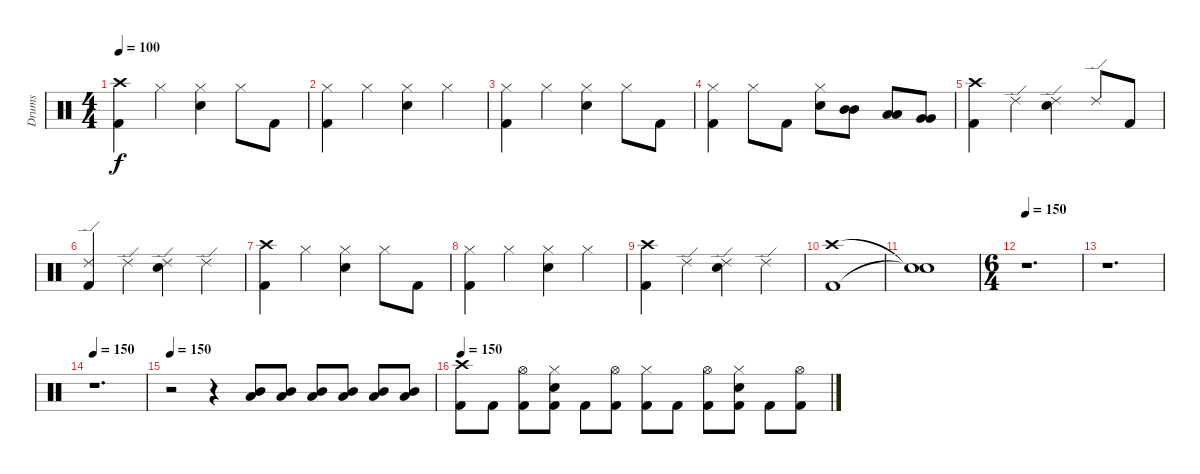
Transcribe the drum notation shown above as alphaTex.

\track ("Drums" "Drums") {instrument percussion}
\staff {score}
\articulation defaults
\ts (4 4)
\tempo 100
\clef neutral
\ks c
("Kick (hit) 2" "Crash high (hit)").4{dy f} "Hi-Hat (closed)".4 ("Electric Snare (hit)" "Hi-Hat (closed)").4 "Hi-Hat (closed)".8 "Kick (hit) 2".8 |
("Kick (hit) 2" "Hi-Hat (closed)").4 "Hi-Hat (closed)".4 ("Electric Snare (hit)" "Hi-Hat (closed)").4 "Hi-Hat (closed)".4 |
("Kick (hit) 2" "Hi-Hat (closed)").4 "Hi-Hat (closed)".4 ("Electric Snare (hit)" "Hi-Hat (closed)").4 "Hi-Hat (closed)".8 "Kick (hit) 2".8 |
("Kick (hit) 2" "Hi-Hat (closed)").4 "Hi-Hat (closed)".8 "Kick (hit) 2".8 ("Electric Snare (hit)" "Hi-Hat (closed)").8 ("Mid Tom (hit)" "Mid Tom (hit)").8 ("Low Tom (hit)" "Low Tom (hit)").8 ("Very Low Tom (hit)" "Very Low Tom (hit)").8 |
("Kick (hit) 2" "Crash high (hit)").4 "Ride (edge) 2".4 ("Electric Snare (hit)" "Ride (edge) 2").4 "Ride (edge) 2".8 "Kick (hit) 2".8 |
("Kick (hit) 2" "Ride (edge) 2").4 "Ride (edge) 2".4 ("Electric Snare (hit)" "Ride (edge) 2").4 "Ride (edge) 2".4 |
("Kick (hit) 2" "Crash high (hit)").4 "Hi-Hat (closed)".4 ("Electric Snare (hit)" "Hi-Hat (closed)").4 "Hi-Hat (closed)".8 "Kick (hit) 2".8 |
("Kick (hit) 2" "Hi-Hat (closed)").4 "Hi-Hat (closed)".4 ("Electric Snare (hit)" "Hi-Hat (closed)").4 "Hi-Hat (closed)".4 |
("Kick (hit) 2" "Crash high (hit)").4 "Ride (edge) 2".4 ("Electric Snare (hit)" "Ride (edge) 2").4 "Ride (edge) 2".4 |
("Kick (hit) 2" "Crash high (hit)").1 |
("Snare (hit)"{t} "Snare (hit)"{t}).1 |
\ts (6 4)
\tempo 150
r.1{d} |
r.1{d} |
\tempo 150
r.1{d} |
\tempo 150
r.2 r.4 ("Mid Tom (hit)" "Low Tom (hit)").8 ("Mid Tom (hit)" "Low Tom (hit)").8 ("Mid Tom (hit)" "Low Tom (hit)").8 ("Mid Tom (hit)" "Low Tom (hit)").8 ("Mid Tom (hit)" "Low Tom (hit)").8 ("Mid Tom (hit)" "Low Tom (hit)").8 |
\tempo 150
("Kick (hit) 2" "Crash high (hit)").8 "Kick (hit) 2".8 ("Kick (hit) 2" "Hi-Hat (open)").8 ("Kick (hit) 2" "Electric Snare (hit)" "Hi-Hat (closed)").8 "Kick (hit) 2".8 ("Kick (hit) 2" "Hi-Hat (open)").8 ("Kick (hit) 2" "Hi-Hat (closed)").8 "Kick (hit) 2".8 ("Kick (hit) 2" "Hi-Hat (open)").8 ("Kick (hit) 2" "Electric Snare (hit)" "Hi-Hat (closed)").8 "Kick (hit) 2".8 ("Kick (hit) 2" "Hi-Hat (open)").8
